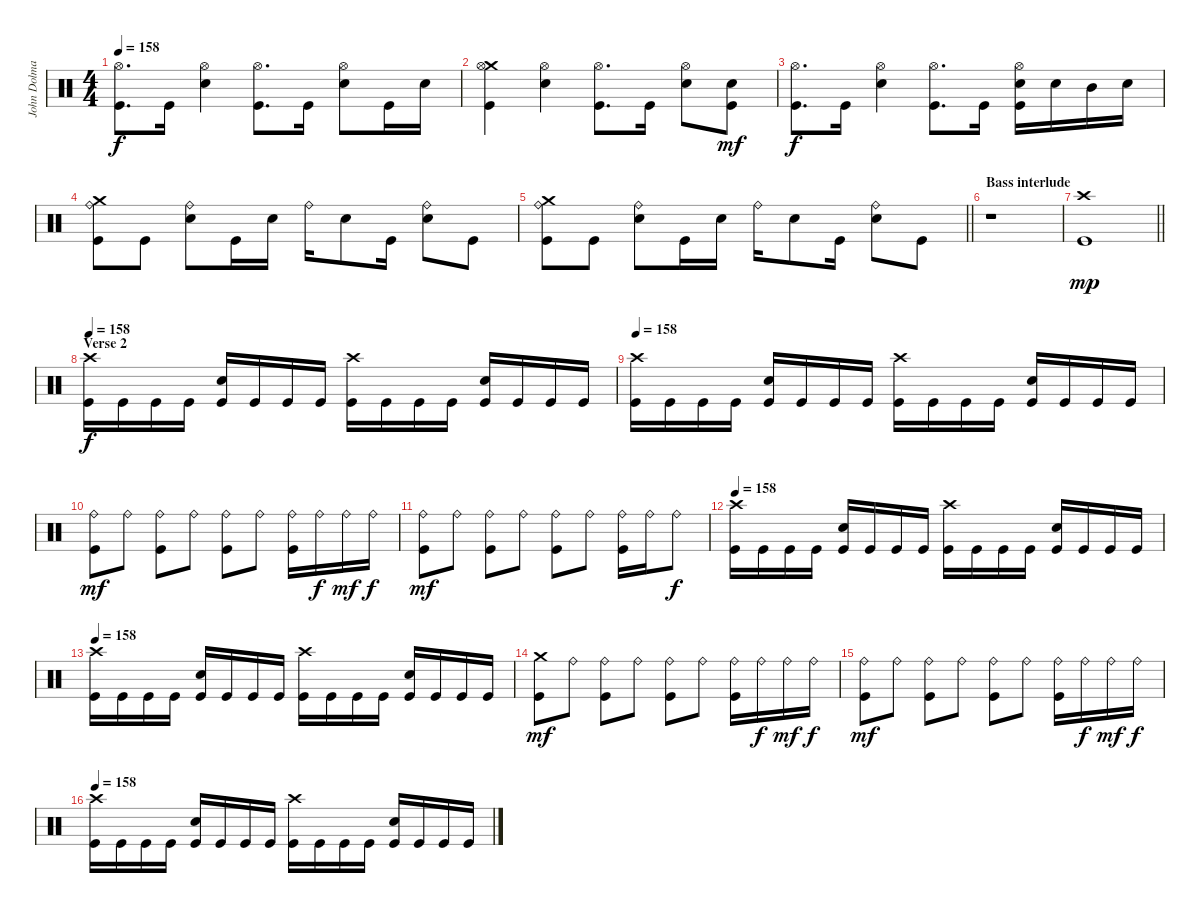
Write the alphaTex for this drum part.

\track ("John Dolmayan (drums)" "John Dolma") {instrument percussion}
\staff {score}
\articulation defaults
\ts (4 4)
\tempo 158
\clef neutral
\ks c
("Hi-Hat (open)" "Kick (hit)").8{d dy f} "Kick (hit)".16 ("Hi-Hat (open)" "Snare (hit) 2").4 ("Hi-Hat (open)" "Kick (hit)").8{d} "Kick (hit)".16 ("Hi-Hat (open)" "Snare (hit) 2").8 "Kick (hit)".16 "Snare (hit) 2".16 |
("Crash medium (hit)" "Hi-Hat (open)" "Kick (hit)").4 ("Hi-Hat (open)" "Snare (hit) 2").4 ("Hi-Hat (open)" "Kick (hit)").8{d} "Kick (hit)".16 ("Hi-Hat (open)" "Snare (hit) 2").8 ("Snare (hit) 2" "Kick (hit)").8{dy mf} |
("Hi-Hat (open)" "Kick (hit)").8{d dy f} "Kick (hit)".16 ("Hi-Hat (open)" "Snare (hit) 2").4 ("Hi-Hat (open)" "Kick (hit)").8{d} "Kick (hit)".16 ("Hi-Hat (open)" "Snare (hit) 2" "Kick (hit)").16 "Snare (hit) 2".16 "Mid Tom (hit)".16 "Snare (hit) 2".16 |
("Crash medium (hit)" "Ride (bell)" "Kick (hit)").8 "Kick (hit)".8 ("Ride (bell)" "Snare (hit) 2").8 "Kick (hit)".16 "Snare (hit) 2".16 "Ride (bell)".16 "Snare (hit) 2".8 "Kick (hit)".16 ("Ride (bell)" "Snare (hit) 2").8 "Kick (hit)".8 |
\barLineRight lightlight
("Crash medium (hit)" "Ride (bell)" "Kick (hit)").8 "Kick (hit)".8 ("Ride (bell)" "Snare (hit) 2").8 "Kick (hit)".16 "Snare (hit) 2".16 "Ride (bell)".16 "Snare (hit) 2".8 "Kick (hit)".16 ("Ride (bell)" "Snare (hit) 2").8 "Kick (hit)".8 |
\section ("" "Bass interlude")
r.1 |
\barLineRight lightlight
("Kick (hit)" "Crash high (hit)").1{dy mp} |
\section ("" "Verse 2")
\tempo 158
("Crash high (hit)" "Kick (hit)").16{dy f} "Kick (hit)".16 "Kick (hit)".16 "Kick (hit)".16 ("Snare (hit) 2" "Kick (hit)").16 "Kick (hit)".16 "Kick (hit)".16 "Kick (hit)".16 ("Crash high (hit)" "Kick (hit)").16 "Kick (hit)".16 "Kick (hit)".16 "Kick (hit)".16 ("Snare (hit) 2" "Kick (hit)").16 "Kick (hit)".16 "Kick (hit)".16 "Kick (hit)".16 |
\tempo 158
("Crash high (hit)" "Kick (hit)").16 "Kick (hit)".16 "Kick (hit)".16 "Kick (hit)".16 ("Snare (hit) 2" "Kick (hit)").16 "Kick (hit)".16 "Kick (hit)".16 "Kick (hit)".16 ("Crash high (hit)" "Kick (hit)").16 "Kick (hit)".16 "Kick (hit)".16 "Kick (hit)".16 ("Snare (hit) 2" "Kick (hit)").16 "Kick (hit)".16 "Kick (hit)".16 "Kick (hit)".16 |
("Ride (bell)" "Kick (hit)").8{dy mf} "Ride (bell)".8 ("Ride (bell)" "Kick (hit)").8 "Ride (bell)".8 ("Ride (bell)" "Kick (hit)").8 "Ride (bell)".8 ("Ride (bell)" "Kick (hit)").16 "Ride (bell)".16{dy f} "Ride (bell)".16{dy mf} "Ride (bell)".16{dy f} |
("Ride (bell)" "Kick (hit)").8{dy mf} "Ride (bell)".8 ("Ride (bell)" "Kick (hit)").8 "Ride (bell)".8 ("Ride (bell)" "Kick (hit)").8 "Ride (bell)".8 ("Ride (bell)" "Kick (hit)").16 "Ride (bell)".16 "Ride (bell)".8{dy f} |
\tempo 158
("Crash high (hit)" "Kick (hit)").16 "Kick (hit)".16 "Kick (hit)".16 "Kick (hit)".16 ("Snare (hit) 2" "Kick (hit)").16 "Kick (hit)".16 "Kick (hit)".16 "Kick (hit)".16 ("Crash high (hit)" "Kick (hit)").16 "Kick (hit)".16 "Kick (hit)".16 "Kick (hit)".16 ("Snare (hit) 2" "Kick (hit)").16 "Kick (hit)".16 "Kick (hit)".16 "Kick (hit)".16 |
\tempo 158
("Crash high (hit)" "Kick (hit)").16 "Kick (hit)".16 "Kick (hit)".16 "Kick (hit)".16 ("Snare (hit) 2" "Kick (hit)").16 "Kick (hit)".16 "Kick (hit)".16 "Kick (hit)".16 ("Crash high (hit)" "Kick (hit)").16 "Kick (hit)".16 "Kick (hit)".16 "Kick (hit)".16 ("Snare (hit) 2" "Kick (hit)").16 "Kick (hit)".16 "Kick (hit)".16 "Kick (hit)".16 |
("Crash medium (hit)" "Kick (hit)").8{dy mf} "Ride (bell)".8 ("Ride (bell)" "Kick (hit)").8 "Ride (bell)".8 ("Ride (bell)" "Kick (hit)").8 "Ride (bell)".8 ("Ride (bell)" "Kick (hit)").16 "Ride (bell)".16{dy f} "Ride (bell)".16{dy mf} "Ride (bell)".16{dy f} |
("Ride (bell)" "Kick (hit)").8{dy mf} "Ride (bell)".8 ("Ride (bell)" "Kick (hit)").8 "Ride (bell)".8 ("Ride (bell)" "Kick (hit)").8 "Ride (bell)".8 ("Ride (bell)" "Kick (hit)").16 "Ride (bell)".16{dy f} "Ride (bell)".16{dy mf} "Ride (bell)".16{dy f} |
\tempo 158
("Crash high (hit)" "Kick (hit)").16 "Kick (hit)".16 "Kick (hit)".16 "Kick (hit)".16 ("Snare (hit) 2" "Kick (hit)").16 "Kick (hit)".16 "Kick (hit)".16 "Kick (hit)".16 ("Crash high (hit)" "Kick (hit)").16 "Kick (hit)".16 "Kick (hit)".16 "Kick (hit)".16 ("Snare (hit) 2" "Kick (hit)").16 "Kick (hit)".16 "Kick (hit)".16 "Kick (hit)".16
